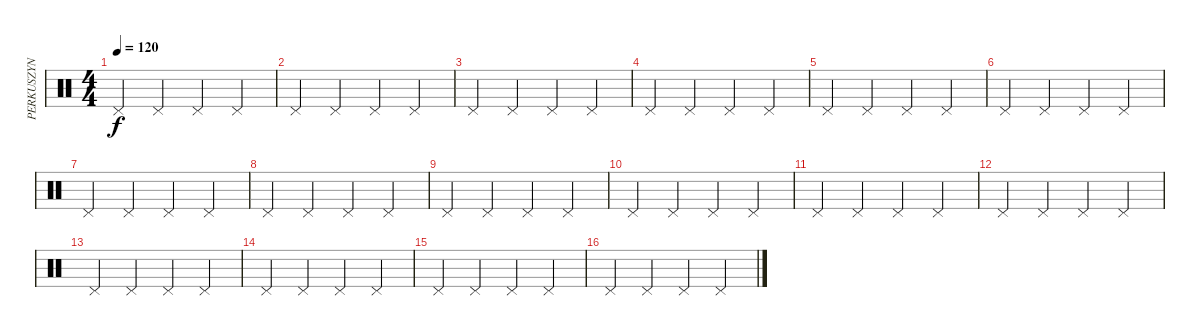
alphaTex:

\track ("PERKUSZYN" "PERKUSZYN") {instrument percussion}
\staff {score}
\articulation defaults
\ts (4 4)
\tempo 120
\clef neutral
\ks c "Pedal Hi-Hat (hit)".4{dy f} "Pedal Hi-Hat (hit)".4 "Pedal Hi-Hat (hit)".4 "Pedal Hi-Hat (hit)".4
|
"Pedal Hi-Hat (hit)".4 "Pedal Hi-Hat (hit)".4 "Pedal Hi-Hat (hit)".4 "Pedal Hi-Hat (hit)".4 |
"Pedal Hi-Hat (hit)".4 "Pedal Hi-Hat (hit)".4 "Pedal Hi-Hat (hit)".4 "Pedal Hi-Hat (hit)".4 |
"Pedal Hi-Hat (hit)".4 "Pedal Hi-Hat (hit)".4 "Pedal Hi-Hat (hit)".4 "Pedal Hi-Hat (hit)".4 |
"Pedal Hi-Hat (hit)".4 "Pedal Hi-Hat (hit)".4 "Pedal Hi-Hat (hit)".4 "Pedal Hi-Hat (hit)".4 |
"Pedal Hi-Hat (hit)".4 "Pedal Hi-Hat (hit)".4 "Pedal Hi-Hat (hit)".4 "Pedal Hi-Hat (hit)".4 |
"Pedal Hi-Hat (hit)".4 "Pedal Hi-Hat (hit)".4 "Pedal Hi-Hat (hit)".4 "Pedal Hi-Hat (hit)".4 |
"Pedal Hi-Hat (hit)".4 "Pedal Hi-Hat (hit)".4 "Pedal Hi-Hat (hit)".4 "Pedal Hi-Hat (hit)".4 |
"Pedal Hi-Hat (hit)".4 "Pedal Hi-Hat (hit)".4 "Pedal Hi-Hat (hit)".4 "Pedal Hi-Hat (hit)".4 |
"Pedal Hi-Hat (hit)".4 "Pedal Hi-Hat (hit)".4 "Pedal Hi-Hat (hit)".4 "Pedal Hi-Hat (hit)".4 |
"Pedal Hi-Hat (hit)".4 "Pedal Hi-Hat (hit)".4 "Pedal Hi-Hat (hit)".4 "Pedal Hi-Hat (hit)".4 |
"Pedal Hi-Hat (hit)".4 "Pedal Hi-Hat (hit)".4 "Pedal Hi-Hat (hit)".4 "Pedal Hi-Hat (hit)".4 |
"Pedal Hi-Hat (hit)".4 "Pedal Hi-Hat (hit)".4 "Pedal Hi-Hat (hit)".4 "Pedal Hi-Hat (hit)".4 |
"Pedal Hi-Hat (hit)".4 "Pedal Hi-Hat (hit)".4 "Pedal Hi-Hat (hit)".4 "Pedal Hi-Hat (hit)".4 |
"Pedal Hi-Hat (hit)".4 "Pedal Hi-Hat (hit)".4 "Pedal Hi-Hat (hit)".4 "Pedal Hi-Hat (hit)".4 |
"Pedal Hi-Hat (hit)".4 "Pedal Hi-Hat (hit)".4 "Pedal Hi-Hat (hit)".4 "Pedal Hi-Hat (hit)".4
